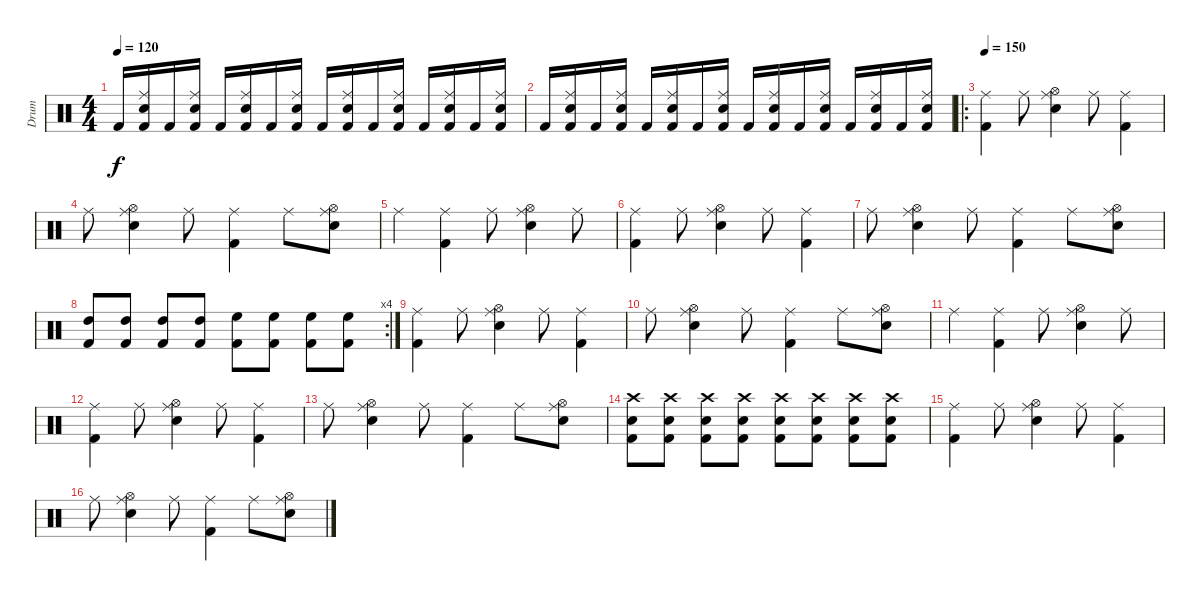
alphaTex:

\track ("Drum" "Drum") {instrument percussion}
\staff {score}
\articulation defaults
\ts (4 4)
\tempo 120
\clef neutral
\ks c "Kick (hit) 2".16{dy f}
("Kick (hit) 2" "Ride (middle)" "Electric Snare (hit)").16 "Kick (hit) 2".16 ("Kick (hit) 2" "Ride (middle)" "Electric Snare (hit)").16 "Kick (hit) 2".16 ("Kick (hit) 2" "Ride (middle)" "Electric Snare (hit)").16 "Kick (hit) 2".16 ("Kick (hit) 2" "Ride (middle)" "Electric Snare (hit)").16 "Kick (hit) 2".16 ("Kick (hit) 2" "Ride (middle)" "Electric Snare (hit)").16 "Kick (hit) 2".16 ("Kick (hit) 2" "Ride (middle)" "Electric Snare (hit)").16 "Kick (hit) 2".16 ("Kick (hit) 2" "Ride (middle)" "Electric Snare (hit)").16 "Kick (hit) 2".16 ("Kick (hit) 2" "Ride (middle)" "Electric Snare (hit)").16 |
"Kick (hit) 2".16 ("Kick (hit) 2" "Ride (middle)" "Electric Snare (hit)").16 "Kick (hit) 2".16 ("Kick (hit) 2" "Ride (middle)" "Electric Snare (hit)").16 "Kick (hit) 2".16 ("Kick (hit) 2" "Ride (middle)" "Electric Snare (hit)").16 "Kick (hit) 2".16 ("Kick (hit) 2" "Ride (middle)" "Electric Snare (hit)").16 "Kick (hit) 2".16 ("Kick (hit) 2" "Ride (middle)" "Electric Snare (hit)").16 "Kick (hit) 2".16 ("Kick (hit) 2" "Ride (middle)" "Electric Snare (hit)").16 "Kick (hit) 2".16 ("Kick (hit) 2" "Ride (middle)" "Electric Snare (hit)").16 "Kick (hit) 2".16 ("Kick (hit) 2" "Ride (middle)" "Electric Snare (hit)").16 |
\ro
\tempo 150
("Kick (hit) 2" "Ride (middle)").4 "Ride (middle)".8 ("Hi-Hat (open)" "Electric Snare (hit)" "Ride (middle)").4 "Ride (middle)".8 ("Kick (hit) 2" "Ride (middle)").4 |
"Ride (middle)".8 ("Hi-Hat (open)" "Electric Snare (hit)" "Ride (middle)").4 "Ride (middle)".8 ("Kick (hit) 2" "Ride (middle)").4 "Ride (middle)".8 ("Hi-Hat (open)" "Electric Snare (hit)" "Ride (middle)").8 |
"Ride (middle)".4 ("Kick (hit) 2" "Ride (middle)").4 "Ride (middle)".8 ("Hi-Hat (open)" "Electric Snare (hit)" "Ride (middle)").4 "Ride (middle)".8 |
("Kick (hit) 2" "Ride (middle)").4 "Ride (middle)".8 ("Hi-Hat (open)" "Electric Snare (hit)" "Ride (middle)").4 "Ride (middle)".8 ("Kick (hit) 2" "Ride (middle)").4 |
"Ride (middle)".8 ("Hi-Hat (open)" "Electric Snare (hit)" "Ride (middle)").4 "Ride (middle)".8 ("Kick (hit) 2" "Ride (middle)").4 "Ride (middle)".8 ("Hi-Hat (open)" "Electric Snare (hit)" "Ride (middle)").8 |
\rc 4
("Kick (hit) 2" "High Tom (hit)").8 ("Kick (hit) 2" "High Tom (hit)").8 ("Kick (hit) 2" "High Tom (hit)").8 ("Kick (hit) 2" "High Tom (hit)").8 ("Kick (hit) 2" "High Floor Tom (hit)").8 ("Kick (hit) 2" "High Floor Tom (hit)").8 ("Kick (hit) 2" "High Floor Tom (hit)").8 ("Kick (hit) 2" "High Floor Tom (hit)").8 |
("Kick (hit) 2" "Ride (middle)").4 "Ride (middle)".8 ("Hi-Hat (open)" "Electric Snare (hit)" "Ride (middle)").4 "Ride (middle)".8 ("Kick (hit) 2" "Ride (middle)").4 |
"Ride (middle)".8 ("Hi-Hat (open)" "Electric Snare (hit)" "Ride (middle)").4 "Ride (middle)".8 ("Kick (hit) 2" "Ride (middle)").4 "Ride (middle)".8 ("Hi-Hat (open)" "Electric Snare (hit)" "Ride (middle)").8 |
"Ride (middle)".4 ("Kick (hit) 2" "Ride (middle)").4 "Ride (middle)".8 ("Hi-Hat (open)" "Electric Snare (hit)" "Ride (middle)").4 "Ride (middle)".8 |
("Kick (hit) 2" "Ride (middle)").4 "Ride (middle)".8 ("Hi-Hat (open)" "Electric Snare (hit)" "Ride (middle)").4 "Ride (middle)".8 ("Kick (hit) 2" "Ride (middle)").4 |
"Ride (middle)".8 ("Hi-Hat (open)" "Electric Snare (hit)" "Ride (middle)").4 "Ride (middle)".8 ("Kick (hit) 2" "Ride (middle)").4 "Ride (middle)".8 ("Hi-Hat (open)" "Electric Snare (hit)" "Ride (middle)").8 |
("Kick (hit) 2" "Electric Snare (hit)" "Crash high (hit)").8 ("Kick (hit) 2" "Electric Snare (hit)" "Crash high (hit)").8 ("Kick (hit) 2" "Electric Snare (hit)" "Crash high (hit)").8 ("Kick (hit) 2" "Electric Snare (hit)" "Crash high (hit)").8 ("Kick (hit) 2" "Electric Snare (hit)" "Crash high (hit)").8 ("Kick (hit) 2" "Electric Snare (hit)" "Crash high (hit)").8 ("Kick (hit) 2" "Electric Snare (hit)" "Crash high (hit)").8 ("Kick (hit) 2" "Electric Snare (hit)" "Crash high (hit)").8 |
("Kick (hit) 2" "Ride (middle)").4 "Ride (middle)".8 ("Hi-Hat (open)" "Electric Snare (hit)" "Ride (middle)").4 "Ride (middle)".8 ("Kick (hit) 2" "Ride (middle)").4 |
"Ride (middle)".8 ("Hi-Hat (open)" "Electric Snare (hit)" "Ride (middle)").4 "Ride (middle)".8 ("Kick (hit) 2" "Ride (middle)").4 "Ride (middle)".8 ("Hi-Hat (open)" "Electric Snare (hit)" "Ride (middle)").8
